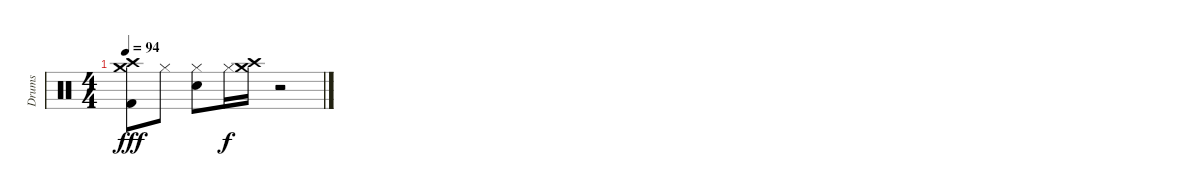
\track ("Drums" "Drums") {instrument percussion}
\staff {score}
\articulation defaults
\ts (4 4)
\tempo 94
\clef neutral
\ks c
("Crash high (hit)" "Crash medium (hit)" "Kick (hit) 2").8{dy fff} "Hi-Hat (closed)".8 ("Hi-Hat (closed)" "Snare (hit) 2").8 "Hi-Hat (closed)".16{dy f} ("Crash high (hit)" "Crash medium (hit)").16 r.2
